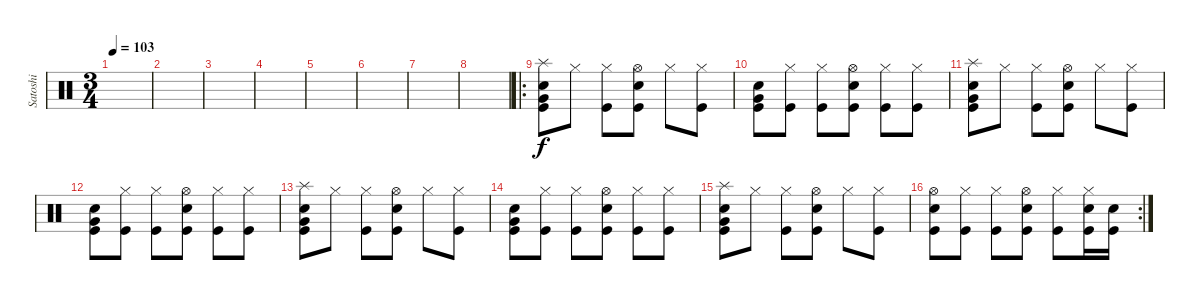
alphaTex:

\track ("Satoshi" "Satoshi") {instrument percussion}
\staff {score}
\articulation defaults
\ts (3 4)
\tempo 103
\clef neutral
\ks c
|
|
|
|
|
|
|
|
\ro
("Splash (hit)" "Very Low Tom (hit)" "Electric Snare (hit)" "Kick (hit)").8 "Hi-Hat (closed)".8 ("Hi-Hat (closed)" "Kick (hit)").8 ("Hi-Hat (open)" "Electric Snare (hit)" "Kick (hit)").8 "Hi-Hat (closed)".8 ("Hi-Hat (closed)" "Kick (hit)").8 |
("Very Low Tom (hit)" "Electric Snare (hit)" "Kick (hit)").8 ("Hi-Hat (closed)" "Kick (hit)").8 ("Hi-Hat (closed)" "Kick (hit)").8 ("Hi-Hat (open)" "Electric Snare (hit)" "Kick (hit)").8 ("Hi-Hat (closed)" "Kick (hit)").8 ("Hi-Hat (closed)" "Kick (hit)").8 |
("Splash (hit)" "Very Low Tom (hit)" "Electric Snare (hit)" "Kick (hit)").8 "Hi-Hat (closed)".8 ("Hi-Hat (closed)" "Kick (hit)").8 ("Hi-Hat (open)" "Electric Snare (hit)" "Kick (hit)").8 "Hi-Hat (closed)".8 ("Hi-Hat (closed)" "Kick (hit)").8 |
("Very Low Tom (hit)" "Electric Snare (hit)" "Kick (hit)").8 ("Hi-Hat (closed)" "Kick (hit)").8 ("Hi-Hat (closed)" "Kick (hit)").8 ("Hi-Hat (open)" "Electric Snare (hit)" "Kick (hit)").8 ("Hi-Hat (closed)" "Kick (hit)").8 ("Hi-Hat (closed)" "Kick (hit)").8 |
("Splash (hit)" "Very Low Tom (hit)" "Electric Snare (hit)" "Kick (hit)").8 "Hi-Hat (closed)".8 ("Hi-Hat (closed)" "Kick (hit)").8 ("Hi-Hat (open)" "Electric Snare (hit)" "Kick (hit)").8 "Hi-Hat (closed)".8 ("Hi-Hat (closed)" "Kick (hit)").8 |
("Very Low Tom (hit)" "Electric Snare (hit)" "Kick (hit)").8 ("Hi-Hat (closed)" "Kick (hit)").8 ("Hi-Hat (closed)" "Kick (hit)").8 ("Hi-Hat (open)" "Electric Snare (hit)" "Kick (hit)").8 ("Hi-Hat (closed)" "Kick (hit)").8 ("Hi-Hat (closed)" "Kick (hit)").8 |
("Splash (hit)" "Very Low Tom (hit)" "Electric Snare (hit)" "Kick (hit)").8 "Hi-Hat (closed)".8 ("Hi-Hat (closed)" "Kick (hit)").8 ("Hi-Hat (open)" "Electric Snare (hit)" "Kick (hit)").8 "Hi-Hat (closed)".8 ("Hi-Hat (closed)" "Kick (hit)").8 |
\rc 2
("Hi-Hat (open)" "Electric Snare (hit)" "Kick (hit)").8 ("Hi-Hat (closed)" "Kick (hit)").8 ("Hi-Hat (closed)" "Kick (hit)").8 ("Hi-Hat (open)" "Electric Snare (hit)" "Kick (hit)").8 ("Hi-Hat (closed)" "Kick (hit)").8 ("Hi-Hat (closed)" "Electric Snare (hit)" "Kick (hit)").16 ("Electric Snare (hit)" "Kick (hit)").16
